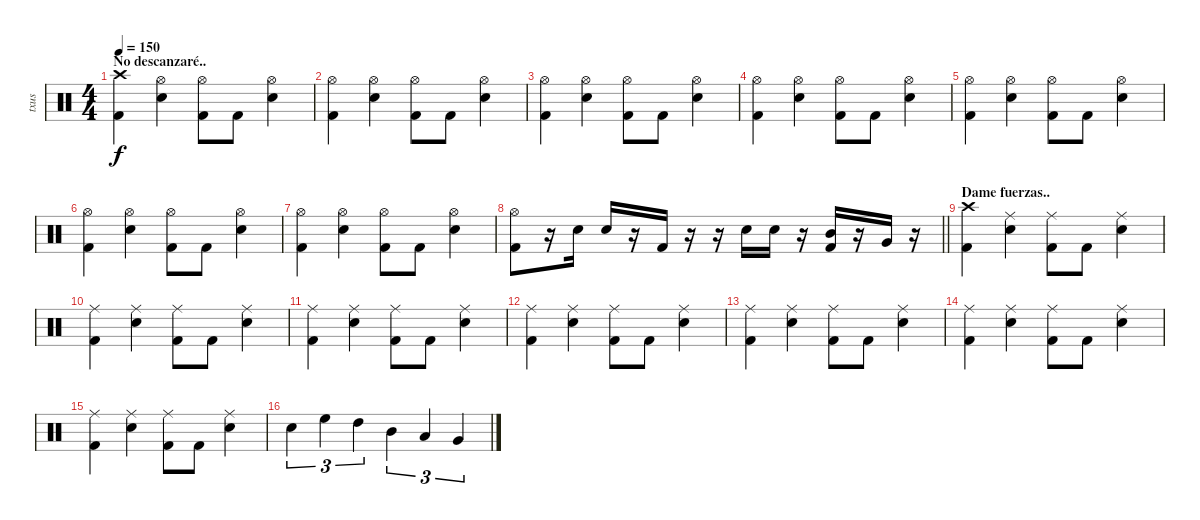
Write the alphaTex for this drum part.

\track ("txus" "txus") {instrument percussion}
\staff {score}
\articulation defaults
\ts (4 4)
\section ("" "No descanzaré..")
\tempo 150
\clef neutral
\ks c
("Kick (hit) 2" "Crash high (hit)").4{dy f} ("Hi-Hat (open)" "Electric Snare (hit)").4 ("Kick (hit) 2" "Hi-Hat (open)").8 "Kick (hit) 2".8 ("Hi-Hat (open)" "Electric Snare (hit)").4 |
("Kick (hit) 2" "Hi-Hat (open)").4 ("Hi-Hat (open)" "Electric Snare (hit)").4 ("Kick (hit) 2" "Hi-Hat (open)").8 "Kick (hit) 2".8 ("Hi-Hat (open)" "Electric Snare (hit)").4 |
("Kick (hit) 2" "Hi-Hat (open)").4 ("Hi-Hat (open)" "Electric Snare (hit)").4 ("Kick (hit) 2" "Hi-Hat (open)").8 "Kick (hit) 2".8 ("Hi-Hat (open)" "Electric Snare (hit)").4 |
("Kick (hit) 2" "Hi-Hat (open)").4 ("Hi-Hat (open)" "Electric Snare (hit)").4 ("Kick (hit) 2" "Hi-Hat (open)").8 "Kick (hit) 2".8 ("Hi-Hat (open)" "Electric Snare (hit)").4 |
("Kick (hit) 2" "Hi-Hat (open)").4 ("Hi-Hat (open)" "Electric Snare (hit)").4 ("Kick (hit) 2" "Hi-Hat (open)").8 "Kick (hit) 2".8 ("Hi-Hat (open)" "Electric Snare (hit)").4 |
("Kick (hit) 2" "Hi-Hat (open)").4 ("Hi-Hat (open)" "Electric Snare (hit)").4 ("Kick (hit) 2" "Hi-Hat (open)").8 "Kick (hit) 2".8 ("Hi-Hat (open)" "Electric Snare (hit)").4 |
("Kick (hit) 2" "Hi-Hat (open)").4 ("Hi-Hat (open)" "Electric Snare (hit)").4 ("Kick (hit) 2" "Hi-Hat (open)").8 "Kick (hit) 2".8 ("Hi-Hat (open)" "Electric Snare (hit)").4 |
\barLineRight lightlight
("Kick (hit) 2" "Hi-Hat (open)").8 r.16 "Electric Snare (hit)".16 "Electric Snare (hit)".16 r.16 "Kick (hit) 2".16 r.16 r.16 "Electric Snare (hit)".16 "Electric Snare (hit)".16 r.16 ("Kick (hit) 2" "Mid Tom (hit)").16 r.16 "Very Low Tom (hit)".16 r.16 |
\section ("" "Dame fuerzas..")
("Kick (hit) 2" "Crash high (hit)").4 ("Ride (middle)" "Electric Snare (hit)").4 ("Kick (hit) 2" "Ride (middle)").8 "Kick (hit) 2".8 ("Ride (middle)" "Electric Snare (hit)").4 |
("Kick (hit) 2" "Ride (middle)").4 ("Ride (middle)" "Electric Snare (hit)").4 ("Kick (hit) 2" "Ride (middle)").8 "Kick (hit) 2".8 ("Ride (middle)" "Electric Snare (hit)").4 |
("Kick (hit) 2" "Ride (middle)").4 ("Ride (middle)" "Electric Snare (hit)").4 ("Kick (hit) 2" "Ride (middle)").8 "Kick (hit) 2".8 ("Ride (middle)" "Electric Snare (hit)").4 |
("Kick (hit) 2" "Ride (middle)").4 ("Ride (middle)" "Electric Snare (hit)").4 ("Kick (hit) 2" "Ride (middle)").8 "Kick (hit) 2".8 ("Ride (middle)" "Electric Snare (hit)").4 |
("Kick (hit) 2" "Ride (middle)").4 ("Ride (middle)" "Electric Snare (hit)").4 ("Kick (hit) 2" "Ride (middle)").8 "Kick (hit) 2".8 ("Ride (middle)" "Electric Snare (hit)").4 |
("Kick (hit) 2" "Ride (middle)").4 ("Ride (middle)" "Electric Snare (hit)").4 ("Kick (hit) 2" "Ride (middle)").8 "Kick (hit) 2".8 ("Ride (middle)" "Electric Snare (hit)").4 |
("Kick (hit) 2" "Ride (middle)").4 ("Ride (middle)" "Electric Snare (hit)").4 ("Kick (hit) 2" "Ride (middle)").8 "Kick (hit) 2".8 ("Ride (middle)" "Electric Snare (hit)").4 |
"Electric Snare (hit)".4{tu (3 2)} "High Floor Tom (hit)".4{tu (3 2)} "High Tom (hit)".4{tu (3 2)} "Mid Tom (hit)".4{tu (3 2)} "Low Tom (hit)".4{tu (3 2)} "Very Low Tom (hit)".4{tu (3 2)}
